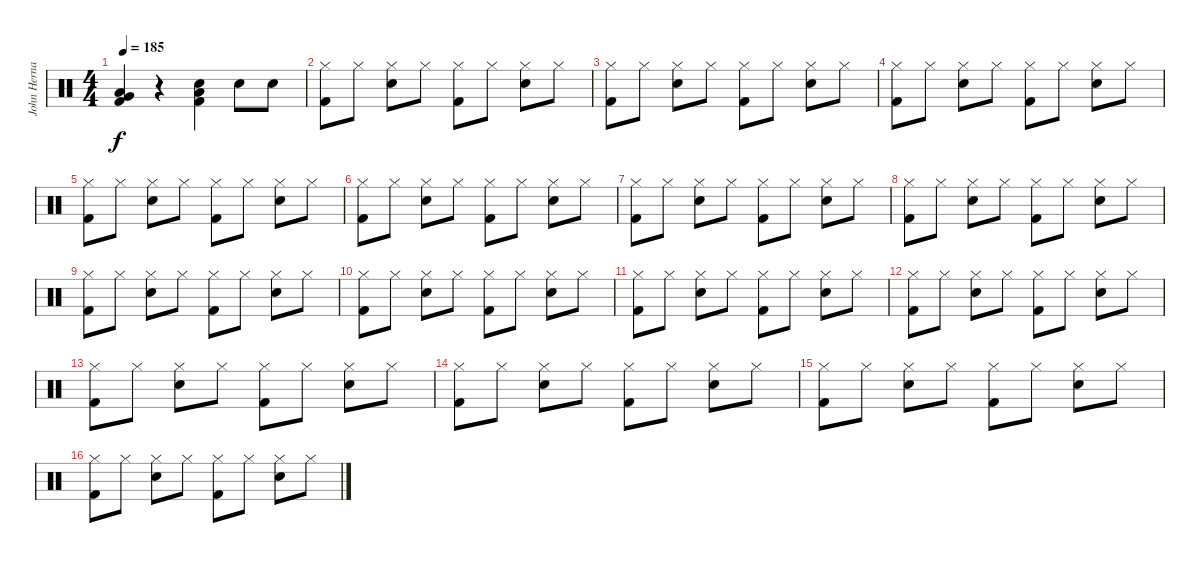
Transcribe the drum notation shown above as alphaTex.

\track ("John Hernandez" "John Herna") {instrument percussion}
\staff {score}
\articulation defaults
\ts (4 4)
\tempo 185
\clef neutral
\ks c
("Low Tom (hit)" "Very Low Tom (hit)" "Kick (hit) 2").4{dy f} r.4 ("Low Tom (hit)" "Snare (hit) 2" "Kick (hit) 2").4 "Snare (hit) 2".8 "Snare (hit) 2".8 |
("Hi-Hat (closed)" "Kick (hit) 2").8 "Hi-Hat (closed)".8 ("Hi-Hat (closed)" "Snare (hit) 2").8 "Hi-Hat (closed)".8 ("Hi-Hat (closed)" "Kick (hit) 2").8 "Hi-Hat (closed)".8 ("Hi-Hat (closed)" "Snare (hit) 2").8 "Hi-Hat (closed)".8 |
("Hi-Hat (closed)" "Kick (hit) 2").8 "Hi-Hat (closed)".8 ("Hi-Hat (closed)" "Snare (hit) 2").8 "Hi-Hat (closed)".8 ("Hi-Hat (closed)" "Kick (hit) 2").8 "Hi-Hat (closed)".8 ("Hi-Hat (closed)" "Snare (hit) 2").8 "Hi-Hat (closed)".8 |
("Hi-Hat (closed)" "Kick (hit) 2").8 "Hi-Hat (closed)".8 ("Hi-Hat (closed)" "Snare (hit) 2").8 "Hi-Hat (closed)".8 ("Hi-Hat (closed)" "Kick (hit) 2").8 "Hi-Hat (closed)".8 ("Hi-Hat (closed)" "Snare (hit) 2").8 "Hi-Hat (closed)".8 |
("Hi-Hat (closed)" "Kick (hit) 2").8 "Hi-Hat (closed)".8 ("Hi-Hat (closed)" "Snare (hit) 2").8 "Hi-Hat (closed)".8 ("Hi-Hat (closed)" "Kick (hit) 2").8 "Hi-Hat (closed)".8 ("Hi-Hat (closed)" "Snare (hit) 2").8 "Hi-Hat (closed)".8 |
("Hi-Hat (closed)" "Kick (hit) 2").8 "Hi-Hat (closed)".8 ("Hi-Hat (closed)" "Snare (hit) 2").8 "Hi-Hat (closed)".8 ("Hi-Hat (closed)" "Kick (hit) 2").8 "Hi-Hat (closed)".8 ("Hi-Hat (closed)" "Snare (hit) 2").8 "Hi-Hat (closed)".8 |
("Hi-Hat (closed)" "Kick (hit) 2").8 "Hi-Hat (closed)".8 ("Hi-Hat (closed)" "Snare (hit) 2").8 "Hi-Hat (closed)".8 ("Hi-Hat (closed)" "Kick (hit) 2").8 "Hi-Hat (closed)".8 ("Hi-Hat (closed)" "Snare (hit) 2").8 "Hi-Hat (closed)".8 |
("Hi-Hat (closed)" "Kick (hit) 2").8 "Hi-Hat (closed)".8 ("Hi-Hat (closed)" "Snare (hit) 2").8 "Hi-Hat (closed)".8 ("Hi-Hat (closed)" "Kick (hit) 2").8 "Hi-Hat (closed)".8 ("Hi-Hat (closed)" "Snare (hit) 2").8 "Hi-Hat (closed)".8 |
("Hi-Hat (closed)" "Kick (hit) 2").8 "Hi-Hat (closed)".8 ("Hi-Hat (closed)" "Snare (hit) 2").8 "Hi-Hat (closed)".8 ("Hi-Hat (closed)" "Kick (hit) 2").8 "Hi-Hat (closed)".8 ("Hi-Hat (closed)" "Snare (hit) 2").8 "Hi-Hat (closed)".8 |
("Hi-Hat (closed)" "Kick (hit) 2").8 "Hi-Hat (closed)".8 ("Hi-Hat (closed)" "Snare (hit) 2").8 "Hi-Hat (closed)".8 ("Hi-Hat (closed)" "Kick (hit) 2").8 "Hi-Hat (closed)".8 ("Hi-Hat (closed)" "Snare (hit) 2").8 "Hi-Hat (closed)".8 |
("Hi-Hat (closed)" "Kick (hit) 2").8 "Hi-Hat (closed)".8 ("Hi-Hat (closed)" "Snare (hit) 2").8 "Hi-Hat (closed)".8 ("Hi-Hat (closed)" "Kick (hit) 2").8 "Hi-Hat (closed)".8 ("Hi-Hat (closed)" "Snare (hit) 2").8 "Hi-Hat (closed)".8 |
("Hi-Hat (closed)" "Kick (hit) 2").8 "Hi-Hat (closed)".8 ("Hi-Hat (closed)" "Snare (hit) 2").8 "Hi-Hat (closed)".8 ("Hi-Hat (closed)" "Kick (hit) 2").8 "Hi-Hat (closed)".8 ("Hi-Hat (closed)" "Snare (hit) 2").8 "Hi-Hat (closed)".8 |
("Hi-Hat (closed)" "Kick (hit) 2").8 "Hi-Hat (closed)".8 ("Hi-Hat (closed)" "Snare (hit) 2").8 "Hi-Hat (closed)".8 ("Hi-Hat (closed)" "Kick (hit) 2").8 "Hi-Hat (closed)".8 ("Hi-Hat (closed)" "Snare (hit) 2").8 "Hi-Hat (closed)".8 |
("Hi-Hat (closed)" "Kick (hit) 2").8 "Hi-Hat (closed)".8 ("Hi-Hat (closed)" "Snare (hit) 2").8 "Hi-Hat (closed)".8 ("Hi-Hat (closed)" "Kick (hit) 2").8 "Hi-Hat (closed)".8 ("Hi-Hat (closed)" "Snare (hit) 2").8 "Hi-Hat (closed)".8 |
("Hi-Hat (closed)" "Kick (hit) 2").8 "Hi-Hat (closed)".8 ("Hi-Hat (closed)" "Snare (hit) 2").8 "Hi-Hat (closed)".8 ("Hi-Hat (closed)" "Kick (hit) 2").8 "Hi-Hat (closed)".8 ("Hi-Hat (closed)" "Snare (hit) 2").8 "Hi-Hat (closed)".8 |
("Hi-Hat (closed)" "Kick (hit) 2").8 "Hi-Hat (closed)".8 ("Hi-Hat (closed)" "Snare (hit) 2").8 "Hi-Hat (closed)".8 ("Hi-Hat (closed)" "Kick (hit) 2").8 "Hi-Hat (closed)".8 ("Hi-Hat (closed)" "Snare (hit) 2").8 "Hi-Hat (closed)".8
